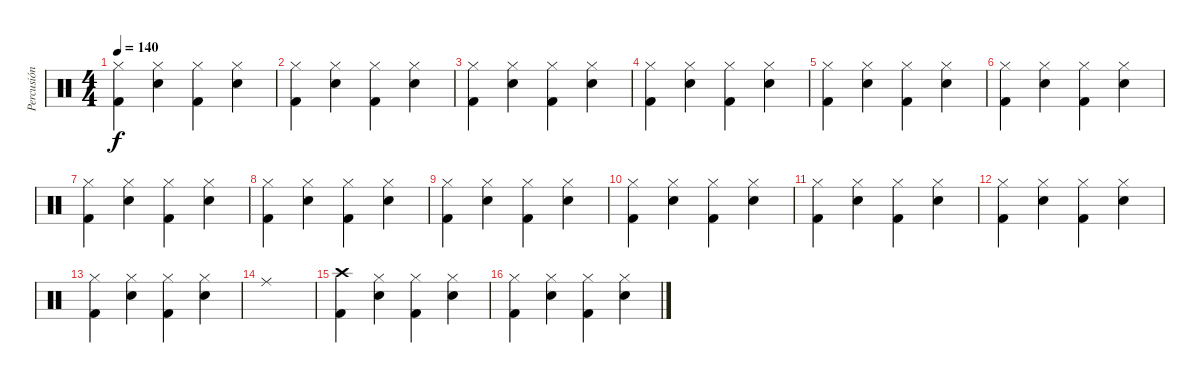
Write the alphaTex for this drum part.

\track ("Percusión" "Percusión") {instrument percussion}
\staff {score}
\articulation defaults
\ts (4 4)
\tempo 140
\clef neutral
\ks c
("Hi-Hat (closed)" "Kick (hit) 2").4{dy f} ("Hi-Hat (closed)" "Snare (hit) 2").4 ("Hi-Hat (closed)" "Kick (hit) 2").4 ("Hi-Hat (closed)" "Snare (hit) 2").4 |
("Hi-Hat (closed)" "Kick (hit) 2").4 ("Hi-Hat (closed)" "Snare (hit) 2").4 ("Hi-Hat (closed)" "Kick (hit) 2").4 ("Hi-Hat (closed)" "Snare (hit) 2").4 |
("Hi-Hat (closed)" "Kick (hit) 2").4 ("Hi-Hat (closed)" "Snare (hit) 2").4 ("Hi-Hat (closed)" "Kick (hit) 2").4 ("Hi-Hat (closed)" "Snare (hit) 2").4 |
("Hi-Hat (closed)" "Kick (hit) 2").4 ("Hi-Hat (closed)" "Snare (hit) 2").4 ("Hi-Hat (closed)" "Kick (hit) 2").4 ("Hi-Hat (closed)" "Snare (hit) 2").4 |
("Hi-Hat (closed)" "Kick (hit) 2").4 ("Hi-Hat (closed)" "Snare (hit) 2").4 ("Hi-Hat (closed)" "Kick (hit) 2").4 ("Hi-Hat (closed)" "Snare (hit) 2").4 |
("Hi-Hat (closed)" "Kick (hit) 2").4 ("Hi-Hat (closed)" "Snare (hit) 2").4 ("Hi-Hat (closed)" "Kick (hit) 2").4 ("Hi-Hat (closed)" "Snare (hit) 2").4 |
("Hi-Hat (closed)" "Kick (hit) 2").4 ("Hi-Hat (closed)" "Snare (hit) 2").4 ("Hi-Hat (closed)" "Kick (hit) 2").4 ("Hi-Hat (closed)" "Snare (hit) 2").4 |
("Hi-Hat (closed)" "Kick (hit) 2").4 ("Hi-Hat (closed)" "Snare (hit) 2").4 ("Hi-Hat (closed)" "Kick (hit) 2").4 ("Hi-Hat (closed)" "Snare (hit) 2").4 |
("Hi-Hat (closed)" "Kick (hit) 2").4 ("Hi-Hat (closed)" "Snare (hit) 2").4 ("Hi-Hat (closed)" "Kick (hit) 2").4 ("Hi-Hat (closed)" "Snare (hit) 2").4 |
("Hi-Hat (closed)" "Kick (hit) 2").4 ("Hi-Hat (closed)" "Snare (hit) 2").4 ("Hi-Hat (closed)" "Kick (hit) 2").4 ("Hi-Hat (closed)" "Snare (hit) 2").4 |
("Hi-Hat (closed)" "Kick (hit) 2").4 ("Hi-Hat (closed)" "Snare (hit) 2").4 ("Hi-Hat (closed)" "Kick (hit) 2").4 ("Hi-Hat (closed)" "Snare (hit) 2").4 |
("Hi-Hat (closed)" "Kick (hit) 2").4 ("Hi-Hat (closed)" "Snare (hit) 2").4 ("Hi-Hat (closed)" "Kick (hit) 2").4 ("Hi-Hat (closed)" "Snare (hit) 2").4 |
("Hi-Hat (closed)" "Kick (hit) 2").4 ("Hi-Hat (closed)" "Snare (hit) 2").4 ("Hi-Hat (closed)" "Kick (hit) 2").4 ("Hi-Hat (closed)" "Snare (hit) 2").4 |
"Ride (middle)".1 |
("Crash high (hit)" "Kick (hit) 2").4 ("Hi-Hat (closed)" "Snare (hit) 2").4 ("Hi-Hat (closed)" "Kick (hit) 2").4 ("Hi-Hat (closed)" "Snare (hit) 2").4 |
("Hi-Hat (closed)" "Kick (hit) 2").4 ("Hi-Hat (closed)" "Snare (hit) 2").4 ("Hi-Hat (closed)" "Kick (hit) 2").4 ("Hi-Hat (closed)" "Snare (hit) 2").4
